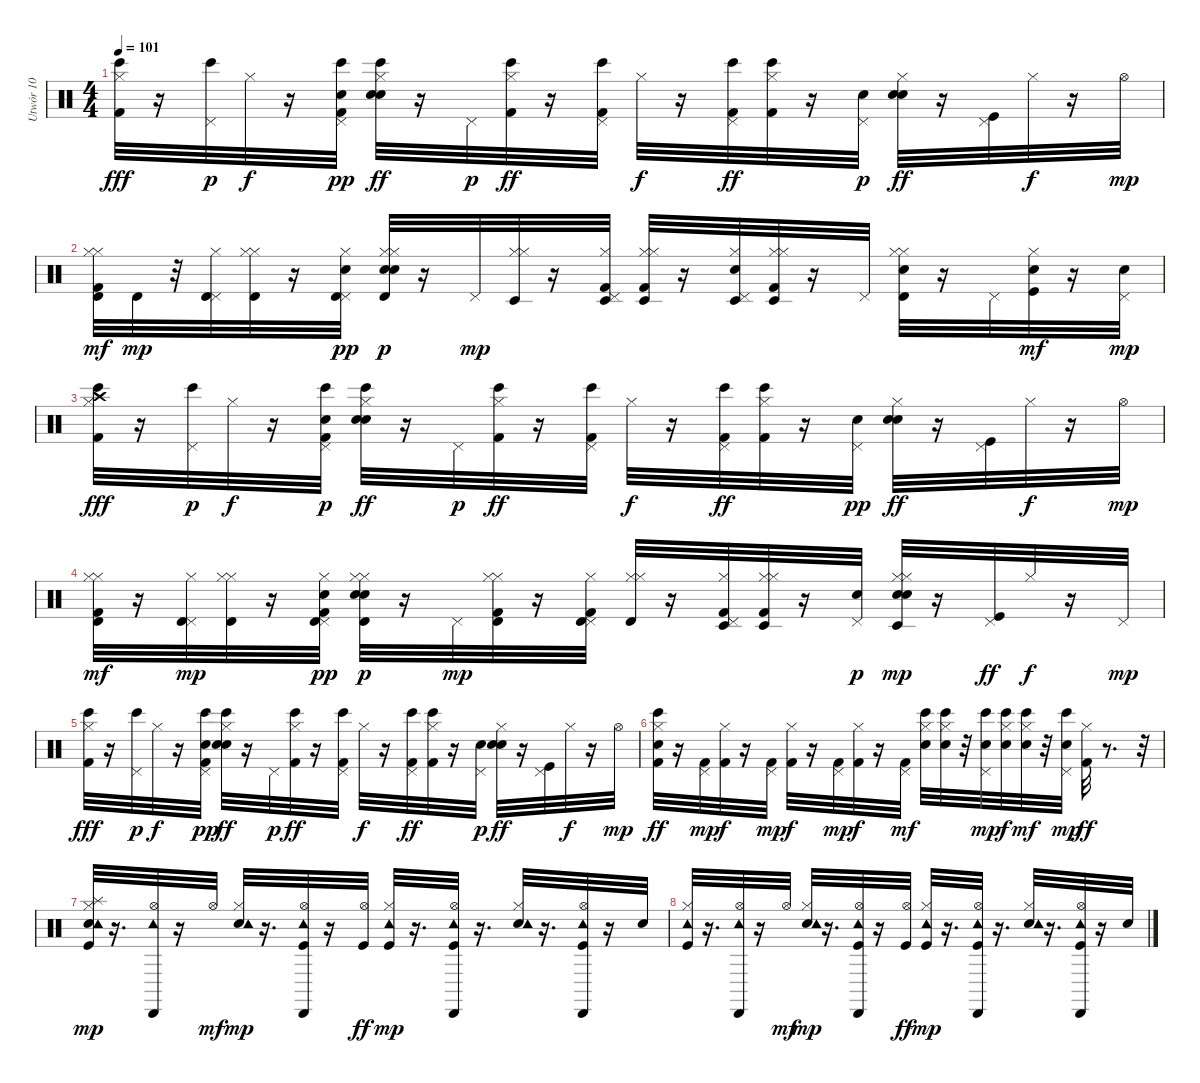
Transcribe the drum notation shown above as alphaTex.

\track ("Utwór 10" "Utwór 10") {instrument percussion}
\staff {score}
\articulation defaults
\ts (4 4)
\tempo 101
\clef neutral
\ks c
("Bongo High (hit)" "Hi-Hat (closed)" "Kick (hit) 2").32{dy fff} r.16 ("Bongo High (hit)" "Pedal Hi-Hat (hit)").32{dy p} "Hi-Hat (closed)".32{dy f} r.16 ("Bongo High (hit)" "Pedal Hi-Hat (hit)" "Kick (hit) 2" "Electric Snare (hit)").32{dy pp} ("Electric Snare (hit)" "Bongo High (hit)" "Electric Snare (hit)" "Hi-Hat (closed)").32{dy ff} r.16 "Pedal Hi-Hat (hit)".32{dy p} ("Bongo High (hit)" "Hi-Hat (closed)" "Kick (hit) 2").32{dy ff} r.16 ("Bongo High (hit)" "Pedal Hi-Hat (hit)" "Kick (hit) 2").32 "Hi-Hat (closed)".32{dy f} r.16 ("Bongo High (hit)" "Pedal Hi-Hat (hit)" "Kick (hit) 2").32{dy ff} ("Bongo High (hit)" "Hi-Hat (closed)" "Kick (hit) 2").32 r.16 ("Pedal Hi-Hat (hit)" "Electric Snare (hit)").32{dy p} ("Electric Snare (hit)" "Electric Snare (hit)" "Hi-Hat (closed)").32{dy ff} r.16 ("Pedal Hi-Hat (hit)" "Kick (hit)").32 "Hi-Hat (closed)".32{dy f} r.16 "Hi-Hat (open)".32{dy mp} |
("Hi-Hat (closed)" "Kick (hit) 2" "Hi-Hat (closed)" "Timbale high (hit)").32{dy mf} "Timbale high (hit)".32{dy mp} r.32 ("Pedal Hi-Hat (hit)" "Hi-Hat (closed)" "Timbale high (hit)").32 ("Hi-Hat (closed)" "Hi-Hat (closed)" "Timbale high (hit)").32 r.16 ("Pedal Hi-Hat (hit)" "Hi-Hat (closed)" "Timbale high (hit)" "Electric Snare (hit)").32{dy pp} ("Electric Snare (hit)" "Electric Snare (hit)" "Hi-Hat (closed)" "Hi-Hat (closed)" "Timbale high (hit)").32{dy p} r.16 "Pedal Hi-Hat (hit)".32{dy mp} ("Hi-Hat (closed)" "Hi-Hat (closed)" "Timbale low (hit)").32 r.16 ("Pedal Hi-Hat (hit)" "Kick (hit) 2" "Hi-Hat (closed)" "Timbale low (hit)").32 ("Hi-Hat (closed)" "Kick (hit) 2" "Hi-Hat (closed)" "Timbale low (hit)").32 r.16 ("Electric Snare (hit)" "Pedal Hi-Hat (hit)" "Hi-Hat (closed)" "Timbale low (hit)").32 ("Hi-Hat (closed)" "Kick (hit) 2" "Hi-Hat (closed)" "Timbale low (hit)").32 r.16 "Pedal Hi-Hat (hit)".32 ("Electric Snare (hit)" "Hi-Hat (closed)" "Hi-Hat (closed)" "Timbale high (hit)").32 r.16 "Pedal Hi-Hat (hit)".32 ("Electric Snare (hit)" "Hi-Hat (closed)" "Kick (hit)").32{dy mf} r.16 ("Electric Snare (hit)" "Pedal Hi-Hat (hit)").32{dy mp} |
("Crash high (hit)" "Bongo High (hit)" "Hi-Hat (closed)" "Kick (hit) 2").32{dy fff} r.16 ("Bongo High (hit)" "Pedal Hi-Hat (hit)").32{dy p} "Hi-Hat (closed)".32{dy f} r.16 ("Bongo High (hit)" "Pedal Hi-Hat (hit)" "Kick (hit) 2" "Electric Snare (hit)").32{dy p} ("Electric Snare (hit)" "Bongo High (hit)" "Electric Snare (hit)" "Hi-Hat (closed)").32{dy ff} r.16 "Pedal Hi-Hat (hit)".32{dy p} ("Bongo High (hit)" "Hi-Hat (closed)" "Kick (hit) 2").32{dy ff} r.16 ("Bongo High (hit)" "Pedal Hi-Hat (hit)" "Kick (hit) 2").32 "Hi-Hat (closed)".32{dy f} r.16 ("Bongo High (hit)" "Pedal Hi-Hat (hit)" "Kick (hit) 2").32{dy ff} ("Bongo High (hit)" "Hi-Hat (closed)" "Kick (hit) 2").32 r.16 ("Pedal Hi-Hat (hit)" "Electric Snare (hit)").32{dy pp} ("Electric Snare (hit)" "Electric Snare (hit)" "Hi-Hat (closed)").32{dy ff} r.16 ("Pedal Hi-Hat (hit)" "Kick (hit)").32 "Hi-Hat (closed)".32{dy f} r.16 "Hi-Hat (open)".32{dy mp} |
("Hi-Hat (closed)" "Kick (hit) 2" "Hi-Hat (closed)" "Timbale high (hit)").32{dy mf} r.16 ("Pedal Hi-Hat (hit)" "Hi-Hat (closed)" "Timbale high (hit)").32{dy mp} ("Hi-Hat (closed)" "Hi-Hat (closed)" "Timbale high (hit)").32 r.16 ("Pedal Hi-Hat (hit)" "Kick (hit) 2" "Hi-Hat (closed)" "Timbale high (hit)" "Electric Snare (hit)").32{dy pp} ("Electric Snare (hit)" "Electric Snare (hit)" "Hi-Hat (closed)" "Hi-Hat (closed)" "Timbale high (hit)").32{dy p} r.16 "Pedal Hi-Hat (hit)".32{dy mp} ("Hi-Hat (closed)" "Kick (hit) 2" "Hi-Hat (closed)" "Timbale high (hit)").32 r.16 ("Pedal Hi-Hat (hit)" "Kick (hit) 2" "Hi-Hat (closed)" "Timbale high (hit)").32 ("Hi-Hat (closed)" "Hi-Hat (closed)" "Timbale high (hit)").32 r.16 ("Pedal Hi-Hat (hit)" "Kick (hit) 2" "Hi-Hat (closed)" "Timbale low (hit)").32 ("Hi-Hat (closed)" "Kick (hit) 2" "Hi-Hat (closed)" "Timbale low (hit)").32 r.16 ("Pedal Hi-Hat (hit)" "Electric Snare (hit)").32{dy p} ("Electric Snare (hit)" "Electric Snare (hit)" "Hi-Hat (closed)" "Hi-Hat (closed)" "Timbale low (hit)").32{dy mp} r.16 ("Pedal Hi-Hat (hit)" "Kick (hit)").32{dy ff} "Hi-Hat (closed)".32{dy f} r.16 "Pedal Hi-Hat (hit)".32{dy mp} |
("Bongo High (hit)" "Hi-Hat (closed)" "Kick (hit) 2").32{dy fff} r.16 ("Bongo High (hit)" "Pedal Hi-Hat (hit)").32{dy p} "Hi-Hat (closed)".32{dy f} r.16 ("Bongo High (hit)" "Pedal Hi-Hat (hit)" "Kick (hit) 2" "Electric Snare (hit)").32{dy pp} ("Electric Snare (hit)" "Bongo High (hit)" "Electric Snare (hit)" "Hi-Hat (closed)").32{dy ff} r.16 "Pedal Hi-Hat (hit)".32{dy p} ("Bongo High (hit)" "Hi-Hat (closed)" "Kick (hit) 2").32{dy ff} r.16 ("Bongo High (hit)" "Pedal Hi-Hat (hit)" "Kick (hit) 2").32 "Hi-Hat (closed)".32{dy f} r.16 ("Bongo High (hit)" "Pedal Hi-Hat (hit)" "Kick (hit) 2").32{dy ff} ("Bongo High (hit)" "Hi-Hat (closed)" "Kick (hit) 2").32 r.16 ("Pedal Hi-Hat (hit)" "Electric Snare (hit)").32{dy p} ("Electric Snare (hit)" "Electric Snare (hit)" "Hi-Hat (closed)").32{dy ff} r.16 ("Pedal Hi-Hat (hit)" "Kick (hit)").32 "Hi-Hat (closed)".32{dy f} r.16 "Hi-Hat (open)".32{dy mp} |
("Electric Snare (hit)" "Hi-Hat (closed)" "Kick (hit) 2" "Bongo High (hit)").32{dy ff} r.16 ("Pedal Hi-Hat (hit)" "Kick (hit) 2").32{dy mp} ("Hi-Hat (closed)" "Kick (hit) 2").32{dy f} r.16 ("Pedal Hi-Hat (hit)" "Kick (hit) 2").32{dy mp} ("Hi-Hat (closed)" "Kick (hit) 2").32{dy f} r.16 ("Pedal Hi-Hat (hit)" "Kick (hit) 2").32{dy mp} ("Hi-Hat (closed)" "Kick (hit) 2").32{dy f} r.16 ("Pedal Hi-Hat (hit)" "Kick (hit) 2").32{dy mf} ("Electric Snare (hit)" "Hi-Hat (closed)" "Bongo High (hit)").32 ("Electric Snare (hit)" "Hi-Hat (closed)" "Bongo High (hit)").32 r.32 ("Electric Snare (hit)" "Pedal Hi-Hat (hit)" "Bongo High (hit)").32{dy mp} ("Electric Snare (hit)" "Hi-Hat (closed)" "Bongo High (hit)").32{dy f} ("Electric Snare (hit)" "Hi-Hat (closed)" "Bongo High (hit)").32{dy mf} r.32 ("Electric Snare (hit)" "Pedal Hi-Hat (hit)" "Bongo High (hit)").32{dy mp} ("Hi-Hat (closed)" "Kick (hit) 2").32{dy ff} r.8{d} r.32 |
("Splash (hit)" "Electric Snare (hit)" "Hi-Hat (closed)" "Kick (hit)" "Tambourine (hit)").32{dy mp} r.16{d} ("Cabasa (hit)" "Hi-Hat (open)" "Tambourine (hit)").32 r.16 "Hi-Hat (open)".32{dy mf} ("Electric Snare (hit)" "Hi-Hat (closed)" "Tambourine (hit)").32{dy mp} r.16{d} ("Cabasa (hit)" "Hi-Hat (open)" "Kick (hit)" "Tambourine (hit)").32 r.16 ("Hi-Hat (open)" "Kick (hit)").32{dy ff} ("Hi-Hat (closed)" "Kick (hit)" "Tambourine (hit)").32{dy mp} r.16{d} ("Cabasa (hit)" "Hi-Hat (open)" "Kick (hit)" "Tambourine (hit)").32 r.16{d} ("Electric Snare (hit)" "Hi-Hat (closed)" "Tambourine (hit)").32 r.16{d} ("Cabasa (hit)" "Hi-Hat (open)" "Kick (hit)" "Tambourine (hit)").32 r.16 "Electric Snare (hit)".32 |
("Hi-Hat (closed)" "Kick (hit)" "Tambourine (hit)").32 r.16{d} ("Cabasa (hit)" "Hi-Hat (open)" "Tambourine (hit)").32 r.16 "Hi-Hat (open)".32{dy mf} ("Electric Snare (hit)" "Hi-Hat (closed)" "Tambourine (hit)").32{dy mp} r.16{d} ("Cabasa (hit)" "Hi-Hat (open)" "Kick (hit)" "Tambourine (hit)").32 r.16 ("Hi-Hat (open)" "Kick (hit)").32{dy ff} ("Hi-Hat (closed)" "Kick (hit)" "Tambourine (hit)").32{dy mp} r.16{d} ("Cabasa (hit)" "Hi-Hat (open)" "Kick (hit)" "Tambourine (hit)").32 r.16{d} ("Electric Snare (hit)" "Hi-Hat (closed)" "Tambourine (hit)").32 r.16{d} ("Cabasa (hit)" "Hi-Hat (open)" "Kick (hit)" "Tambourine (hit)").32 r.16 "Electric Snare (hit)".32
